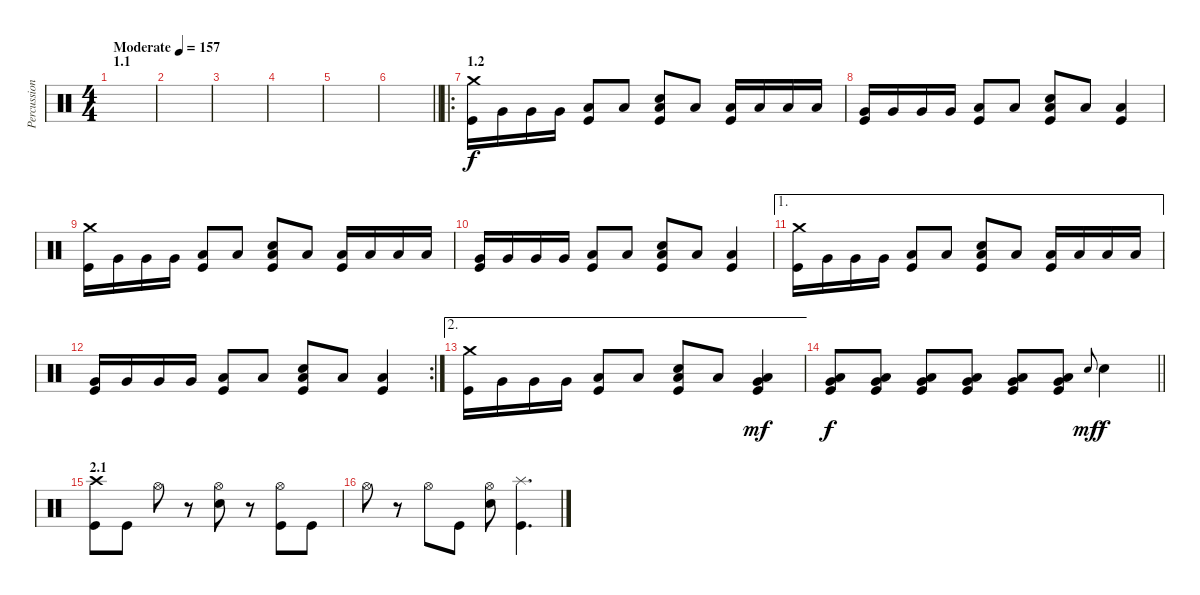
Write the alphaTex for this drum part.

\track ("Percussion" "Percussion") {instrument percussion}
\staff {score}
\articulation defaults
\ts (4 4)
\section ("" "1.1")
\tempo (157 "Moderate")
\clef neutral
\ks c
|
|
|
|
|
\barLineRight lightlight
|
\ro
\section ("" "1.2")
("Crash medium (hit)" "Kick (hit)").16 "Very Low Tom (hit)".16 "Very Low Tom (hit)".16 "Very Low Tom (hit)".16 ("Low Floor Tom (hit)" "Kick (hit)").8 "Low Floor Tom (hit)".8 ("Snare (hit) 2" "Low Floor Tom (hit)" "Kick (hit)").8 "Low Floor Tom (hit)".8 ("Low Tom (hit)" "Kick (hit)").16 "Low Tom (hit)".16 "Low Tom (hit)".16 "Low Tom (hit)".16 |
("Very Low Tom (hit)" "Kick (hit)").16 "Very Low Tom (hit)".16 "Very Low Tom (hit)".16 "Very Low Tom (hit)".16 ("Low Floor Tom (hit)" "Kick (hit)").8 "Low Floor Tom (hit)".8 ("Snare (hit) 2" "Low Floor Tom (hit)" "Kick (hit)").8 "Low Floor Tom (hit)".8 ("Low Floor Tom (hit)" "Kick (hit)").4 |
("Crash medium (hit)" "Kick (hit)").16 "Very Low Tom (hit)".16 "Very Low Tom (hit)".16 "Very Low Tom (hit)".16 ("Low Floor Tom (hit)" "Kick (hit)").8 "Low Floor Tom (hit)".8 ("Snare (hit) 2" "Low Floor Tom (hit)" "Kick (hit)").8 "Low Floor Tom (hit)".8 ("Low Tom (hit)" "Kick (hit)").16 "Low Tom (hit)".16 "Low Tom (hit)".16 "Low Tom (hit)".16 |
("Very Low Tom (hit)" "Kick (hit)").16 "Very Low Tom (hit)".16 "Very Low Tom (hit)".16 "Very Low Tom (hit)".16 ("Low Floor Tom (hit)" "Kick (hit)").8 "Low Floor Tom (hit)".8 ("Snare (hit) 2" "Low Floor Tom (hit)" "Kick (hit)").8 "Low Floor Tom (hit)".8 ("Low Floor Tom (hit)" "Kick (hit)").4 |
\ae 1
("Crash medium (hit)" "Kick (hit)").16 "Very Low Tom (hit)".16 "Very Low Tom (hit)".16 "Very Low Tom (hit)".16 ("Low Floor Tom (hit)" "Kick (hit)").8 "Low Floor Tom (hit)".8 ("Snare (hit) 2" "Low Floor Tom (hit)" "Kick (hit)").8 "Low Floor Tom (hit)".8 ("Low Tom (hit)" "Kick (hit)").16 "Low Tom (hit)".16 "Low Tom (hit)".16 "Low Tom (hit)".16 |
\rc 2
("Very Low Tom (hit)" "Kick (hit)").16 "Very Low Tom (hit)".16 "Very Low Tom (hit)".16 "Very Low Tom (hit)".16 ("Low Floor Tom (hit)" "Kick (hit)").8 "Low Floor Tom (hit)".8 ("Snare (hit) 2" "Low Floor Tom (hit)" "Kick (hit)").8 "Low Floor Tom (hit)".8 ("Low Floor Tom (hit)" "Kick (hit)").4 |
\ae 2
("Crash medium (hit)" "Kick (hit)").16 "Very Low Tom (hit)".16 "Very Low Tom (hit)".16 "Very Low Tom (hit)".16 ("Low Floor Tom (hit)" "Kick (hit)").8 "Low Floor Tom (hit)".8 ("Snare (hit) 2" "Low Floor Tom (hit)" "Kick (hit)").8 "Low Floor Tom (hit)".8 ("Very Low Tom (hit)" "Low Floor Tom (hit)" "Kick (hit)").4{dy mf} |
\barLineRight lightlight
("Very Low Tom (hit)" "Low Floor Tom (hit)" "Kick (hit)").8{dy f} ("Very Low Tom (hit)" "Low Floor Tom (hit)" "Kick (hit)").8 ("Very Low Tom (hit)" "Low Floor Tom (hit)" "Kick (hit)").8 ("Very Low Tom (hit)" "Low Floor Tom (hit)" "Kick (hit)").8 ("Very Low Tom (hit)" "Low Floor Tom (hit)" "Kick (hit)").8 ("Very Low Tom (hit)" "Low Floor Tom (hit)" "Kick (hit)").8 "Snare (hit) 2".8{gr onbeat dy mf} "Snare (hit) 2".4{dy f} |
\section ("" "2.1")
("Crash high (hit)" "Kick (hit)").8 "Kick (hit)".8 "Hi-Hat (open)".8 r.8 ("Hi-Hat (open)" "Snare (hit) 2").8 r.8 ("Hi-Hat (open)" "Kick (hit)").8 "Kick (hit)".8 |
"Hi-Hat (open)".8 r.8 "Hi-Hat (open)".8 "Kick (hit)".8 ("Hi-Hat (open)" "Snare (hit) 2").8 ("Splash (hit)" "Kick (hit)").4{d}
